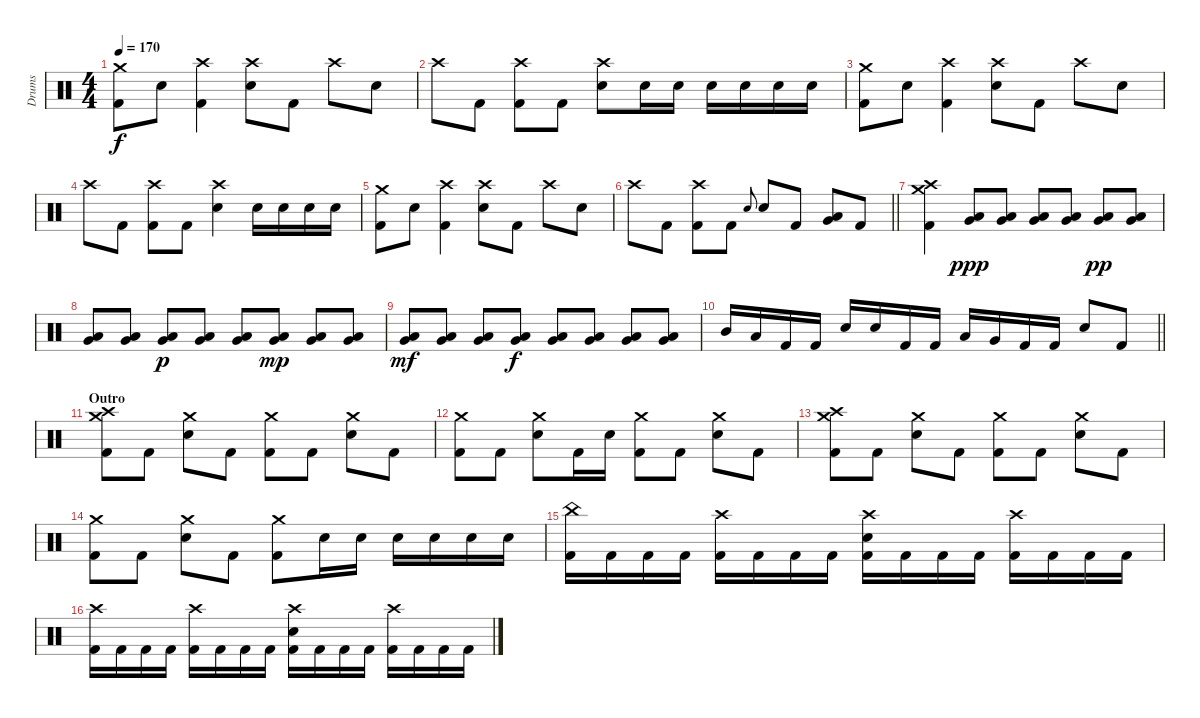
\track ("Drums" "Drums") {instrument percussion}
\staff {score}
\articulation defaults
\ts (4 4)
\tempo 170
\clef neutral
\ks c
("Crash medium (hit)" "Kick (hit) 2").8{dy f} "Electric Snare (hit)".8 ("Crash high (hit)" "Kick (hit) 2").4 ("Crash high (hit)" "Electric Snare (hit)").8 "Kick (hit) 2".8 "Crash high (hit)".8 "Electric Snare (hit)".8 |
"Crash high (hit)".8 "Kick (hit) 2".8 ("Crash high (hit)" "Kick (hit) 2").8 "Kick (hit) 2".8 ("Crash high (hit)" "Electric Snare (hit)").8 "Electric Snare (hit)".16 "Electric Snare (hit)".16 "Electric Snare (hit)".16 "Electric Snare (hit)".16 "Electric Snare (hit)".16 "Electric Snare (hit)".16 |
("Crash medium (hit)" "Kick (hit) 2").8 "Electric Snare (hit)".8 ("Crash high (hit)" "Kick (hit) 2").4 ("Crash high (hit)" "Electric Snare (hit)").8 "Kick (hit) 2".8 "Crash high (hit)".8 "Electric Snare (hit)".8 |
"Crash high (hit)".8 "Kick (hit) 2".8 ("Crash high (hit)" "Kick (hit) 2").8 "Kick (hit) 2".8 ("Crash high (hit)" "Electric Snare (hit)").4 "Electric Snare (hit)".16 "Electric Snare (hit)".16 "Electric Snare (hit)".16 "Electric Snare (hit)".16 |
("Crash medium (hit)" "Kick (hit) 2").8 "Electric Snare (hit)".8 ("Crash high (hit)" "Kick (hit) 2").4 ("Crash high (hit)" "Electric Snare (hit)").8 "Kick (hit) 2".8 "Crash high (hit)".8 "Electric Snare (hit)".8 |
\barLineRight lightlight "Crash high (hit)".8 "Kick (hit) 2".8
("Crash high (hit)" "Kick (hit) 2").8 "Kick (hit) 2".8 "Electric Snare (hit)".8{gr onbeat} "Electric Snare (hit)".8 "Kick (hit) 2".8 ("Low Tom (hit)" "Very Low Tom (hit)").8{bu 60} "Kick (hit) 2".8 |
\section ("" "")
("Crash high (hit)" "Crash medium (hit)" "Kick (hit) 2").4 ("Very Low Tom (hit)" "Low Floor Tom (hit)").8{dy ppp} ("Very Low Tom (hit)" "Low Floor Tom (hit)").8 ("Very Low Tom (hit)" "Low Floor Tom (hit)").8 ("Very Low Tom (hit)" "Low Floor Tom (hit)").8 ("Very Low Tom (hit)" "Low Floor Tom (hit)").8{dy pp} ("Very Low Tom (hit)" "Low Floor Tom (hit)").8 |
("Very Low Tom (hit)" "Low Floor Tom (hit)").8 ("Very Low Tom (hit)" "Low Floor Tom (hit)").8 ("Very Low Tom (hit)" "Low Floor Tom (hit)").8{dy p} ("Very Low Tom (hit)" "Low Floor Tom (hit)").8 ("Very Low Tom (hit)" "Low Floor Tom (hit)").8 ("Very Low Tom (hit)" "Low Floor Tom (hit)").8{dy mp} ("Very Low Tom (hit)" "Low Floor Tom (hit)").8 ("Very Low Tom (hit)" "Low Floor Tom (hit)").8 |
("Very Low Tom (hit)" "Low Floor Tom (hit)").8{dy mf} ("Very Low Tom (hit)" "Low Floor Tom (hit)").8 ("Very Low Tom (hit)" "Low Floor Tom (hit)").8 ("Very Low Tom (hit)" "Low Floor Tom (hit)").8{dy f} ("Very Low Tom (hit)" "Low Floor Tom (hit)").8 ("Very Low Tom (hit)" "Low Floor Tom (hit)").8 ("Very Low Tom (hit)" "Low Floor Tom (hit)").8 ("Very Low Tom (hit)" "Low Floor Tom (hit)").8 |
\barLineRight lightlight "Mid Tom (hit)".16 "Low Tom (hit)".16 "Kick (hit) 2".16 "Kick (hit) 2".16 "Electric Snare (hit)".16 "Electric Snare (hit)".16 "Kick (hit) 2".16 "Kick (hit) 2".16 "Low Tom (hit)".16 "Very Low Tom (hit)".16 "Kick (hit) 2".16 "Kick (hit) 2".16 "Electric Snare (hit)".8 "Kick (hit) 2".8
|
\section ("" "Outro")
("Crash high (hit)" "Crash medium (hit)" "Kick (hit) 2").8 "Kick (hit) 2".8 ("Crash medium (hit)" "Electric Snare (hit)").8 "Kick (hit) 2".8 ("Crash medium (hit)" "Kick (hit) 2").8 "Kick (hit) 2".8 ("Crash medium (hit)" "Electric Snare (hit)").8 "Kick (hit) 2".8 |
("Crash medium (hit)" "Kick (hit) 2").8 "Kick (hit) 2".8 ("Crash medium (hit)" "Electric Snare (hit)").8 "Kick (hit) 2".16 "Electric Snare (hit)".16 ("Crash medium (hit)" "Kick (hit) 2").8 "Kick (hit) 2".8 ("Crash medium (hit)" "Electric Snare (hit)").8 "Kick (hit) 2".8 |
("Crash high (hit)" "Crash medium (hit)" "Kick (hit) 2").8 "Kick (hit) 2".8 ("Crash medium (hit)" "Electric Snare (hit)").8 "Kick (hit) 2".8 ("Crash medium (hit)" "Kick (hit) 2").8 "Kick (hit) 2".8 ("Crash medium (hit)" "Electric Snare (hit)").8 "Kick (hit) 2".8 |
("Crash medium (hit)" "Kick (hit) 2").8 "Kick (hit) 2".8 ("Crash medium (hit)" "Electric Snare (hit)").8 "Kick (hit) 2".8 ("Crash medium (hit)" "Kick (hit) 2").8 "Electric Snare (hit)".16 "Electric Snare (hit)".16 "Electric Snare (hit)".16 "Electric Snare (hit)".16 "Electric Snare (hit)".16 "Electric Snare (hit)".16 |
("China (hit)" "Kick (hit) 2").16 "Kick (hit) 2".16 "Kick (hit) 2".16 "Kick (hit) 2".16 ("Crash high (hit)" "Kick (hit) 2").16 "Kick (hit) 2".16 "Kick (hit) 2".16 "Kick (hit) 2".16 ("Crash high (hit)" "Electric Snare (hit)" "Kick (hit) 2").16 "Kick (hit) 2".16 "Kick (hit) 2".16 "Kick (hit) 2".16 ("Crash high (hit)" "Kick (hit) 2").16 "Kick (hit) 2".16 "Kick (hit) 2".16 "Kick (hit) 2".16 |
("Crash high (hit)" "Kick (hit) 2").16 "Kick (hit) 2".16 "Kick (hit) 2".16 "Kick (hit) 2".16 ("Crash high (hit)" "Kick (hit) 2").16 "Kick (hit) 2".16 "Kick (hit) 2".16 "Kick (hit) 2".16 ("Crash high (hit)" "Electric Snare (hit)" "Kick (hit) 2").16 "Kick (hit) 2".16 "Kick (hit) 2".16 "Kick (hit) 2".16 ("Crash high (hit)" "Kick (hit) 2").16 "Kick (hit) 2".16 "Kick (hit) 2".16 "Kick (hit) 2".16
